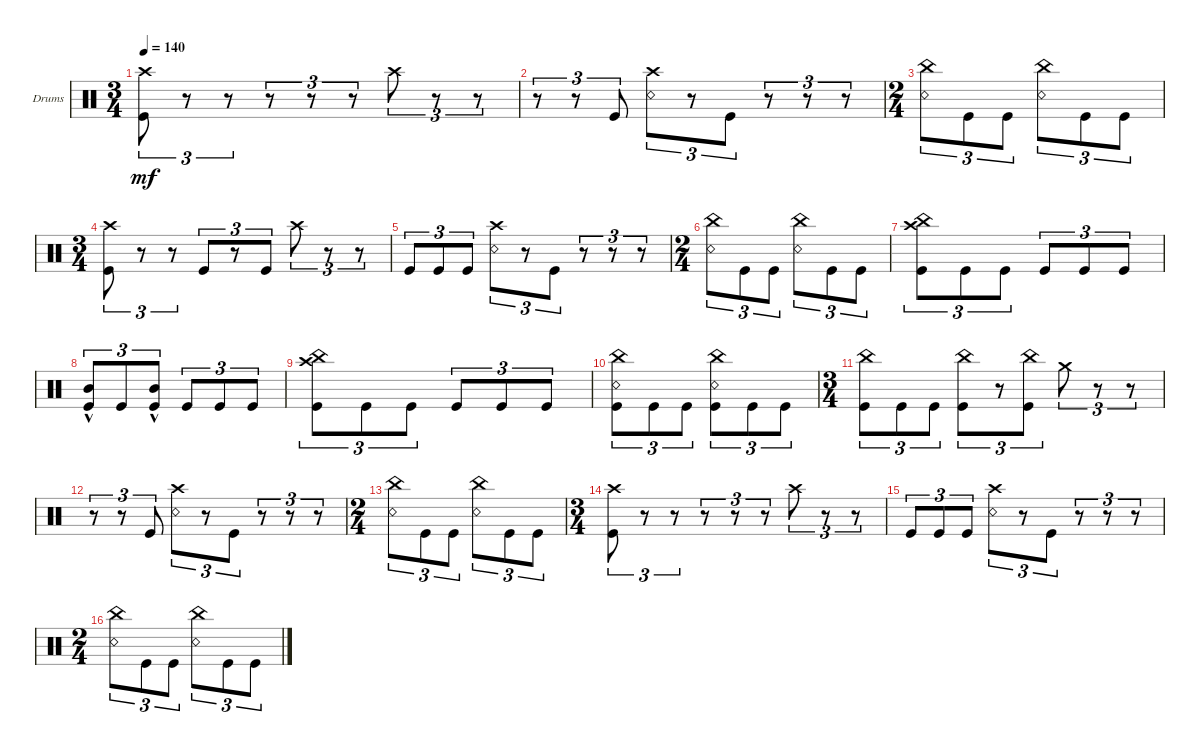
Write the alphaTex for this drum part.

\defaultSystemsLayout 4
\bracketExtendMode groupsimilarinstruments
\firstSystemTrackNameOrientation horizontal
\otherSystemsTrackNameOrientation horizontal
\track ("Drumkit" "Drums") {instrument percussion}
\staff {score}
\articulation defaults
\ts (3 4)
\tempo 140
\clef neutral
\ks c
("Kick (hit)" "Crash high (hit)").8{tu (3 2) dy mf} r.8{tu (3 2)} r.8{tu (3 2)} r.8{tu (3 2)} r.8{tu (3 2)} r.8{tu (3 2)} "Crash high (hit)".8{tu (3 2)} r.8{tu (3 2)} r.8{tu (3 2)} |
r.8{tu (3 2)} r.8{tu (3 2)} "Kick (hit)".8{tu (3 2)} ("Crash high (hit)" "Snare (rim shot)").8{tu (3 2)} r.8{tu (3 2)} "Kick (hit)".8{tu (3 2)} r.8{tu (3 2)} r.8{tu (3 2)} r.8{tu (3 2)} |
\ts (2 4)
("Snare (rim shot)" "China (hit)").8{tu (3 2)} "Kick (hit)".8{tu (3 2)} "Kick (hit)".8{tu (3 2)} ("Snare (rim shot)" "China (hit)").8{tu (3 2)} "Kick (hit)".8{tu (3 2)} "Kick (hit)".8{tu (3 2)} |
\ts (3 4)
("Kick (hit)" "Crash high (hit)").8{tu (3 2)} r.8{tu (3 2)} r.8{tu (3 2)} "Kick (hit)".8{tu (3 2)} r.8{tu (3 2)} "Kick (hit)".8{tu (3 2)} "Crash high (hit)".8{tu (3 2)} r.8{tu (3 2)} r.8{tu (3 2)} |
"Kick (hit)".8{tu (3 2)} "Kick (hit)".8{tu (3 2)} "Kick (hit)".8{tu (3 2)} ("Crash high (hit)" "Snare (rim shot)").8{tu (3 2)} r.8{tu (3 2)} "Kick (hit)".8{tu (3 2)} r.8{tu (3 2)} r.8{tu (3 2)} r.8{tu (3 2)} |
\ts (2 4)
("Snare (rim shot)" "China (hit)").8{tu (3 2)} "Kick (hit)".8{tu (3 2)} "Kick (hit)".8{tu (3 2)} ("Snare (rim shot)" "China (hit)").8{tu (3 2)} "Kick (hit)".8{tu (3 2)} "Kick (hit)".8{tu (3 2)} |
("China (hit)" "Kick (hit)" "Crash high (hit)").8{tu (3 2)} "Kick (hit)".8{tu (3 2)} "Kick (hit)".8{tu (3 2)} "Kick (hit)".8{tu (3 2)} "Kick (hit)".8{tu (3 2)} "Kick (hit)".8{tu (3 2)} |
("Kick (hit)" "Mid Tom (hit)"{hac}).8{tu (3 2)} "Kick (hit)".8{tu (3 2)} ("Kick (hit)" "Mid Tom (hit)"{hac}).8{tu (3 2)} "Kick (hit)".8{tu (3 2)} "Kick (hit)".8{tu (3 2)} "Kick (hit)".8{tu (3 2)} |
("China (hit)" "Kick (hit)" "Crash high (hit)").8{tu (3 2)} "Kick (hit)".8{tu (3 2)} "Kick (hit)".8{tu (3 2)} "Kick (hit)".8{tu (3 2)} "Kick (hit)".8{tu (3 2)} "Kick (hit)".8{tu (3 2)} |
("Kick (hit)" "Snare (rim shot)" "China (hit)").8{tu (3 2)} "Kick (hit)".8{tu (3 2)} "Kick (hit)".8{tu (3 2)} ("Kick (hit)" "Snare (rim shot)" "China (hit)").8{tu (3 2)} "Kick (hit)".8{tu (3 2)} "Kick (hit)".8{tu (3 2)} |
\ts (3 4)
("Kick (hit)" "China (hit)").8{tu (3 2)} "Kick (hit)".8{tu (3 2)} "Kick (hit)".8{tu (3 2)} ("Kick (hit)" "China (hit)").8{tu (3 2)} r.8{tu (3 2)} ("China (hit)" "Kick (hit)").8{tu (3 2)} "Crash medium (hit)".8{tu (3 2)} r.8{tu (3 2)} r.8{tu (3 2)} |
r.8{tu (3 2)} r.8{tu (3 2)} "Kick (hit)".8{tu (3 2)} ("Crash high (hit)" "Snare (rim shot)").8{tu (3 2)} r.8{tu (3 2)} "Kick (hit)".8{tu (3 2)} r.8{tu (3 2)} r.8{tu (3 2)} r.8{tu (3 2)} |
\ts (2 4)
("Snare (rim shot)" "China (hit)").8{tu (3 2)} "Kick (hit)".8{tu (3 2)} "Kick (hit)".8{tu (3 2)} ("Snare (rim shot)" "China (hit)").8{tu (3 2)} "Kick (hit)".8{tu (3 2)} "Kick (hit)".8{tu (3 2)} |
\ts (3 4)
("Kick (hit)" "Crash high (hit)").8{tu (3 2)} r.8{tu (3 2)} r.8{tu (3 2)} r.8{tu (3 2)} r.8{tu (3 2)} r.8{tu (3 2)} "Crash high (hit)".8{tu (3 2)} r.8{tu (3 2)} r.8{tu (3 2)} |
"Kick (hit)".8{tu (3 2)} "Kick (hit)".8{tu (3 2)} "Kick (hit)".8{tu (3 2)} ("Crash high (hit)" "Snare (rim shot)").8{tu (3 2)} r.8{tu (3 2)} "Kick (hit)".8{tu (3 2)} r.8{tu (3 2)} r.8{tu (3 2)} r.8{tu (3 2)} |
\ts (2 4)
("Snare (rim shot)" "China (hit)").8{tu (3 2)} "Kick (hit)".8{tu (3 2)} "Kick (hit)".8{tu (3 2)} ("Snare (rim shot)" "China (hit)").8{tu (3 2)} "Kick (hit)".8{tu (3 2)} "Kick (hit)".8{tu (3 2)}
